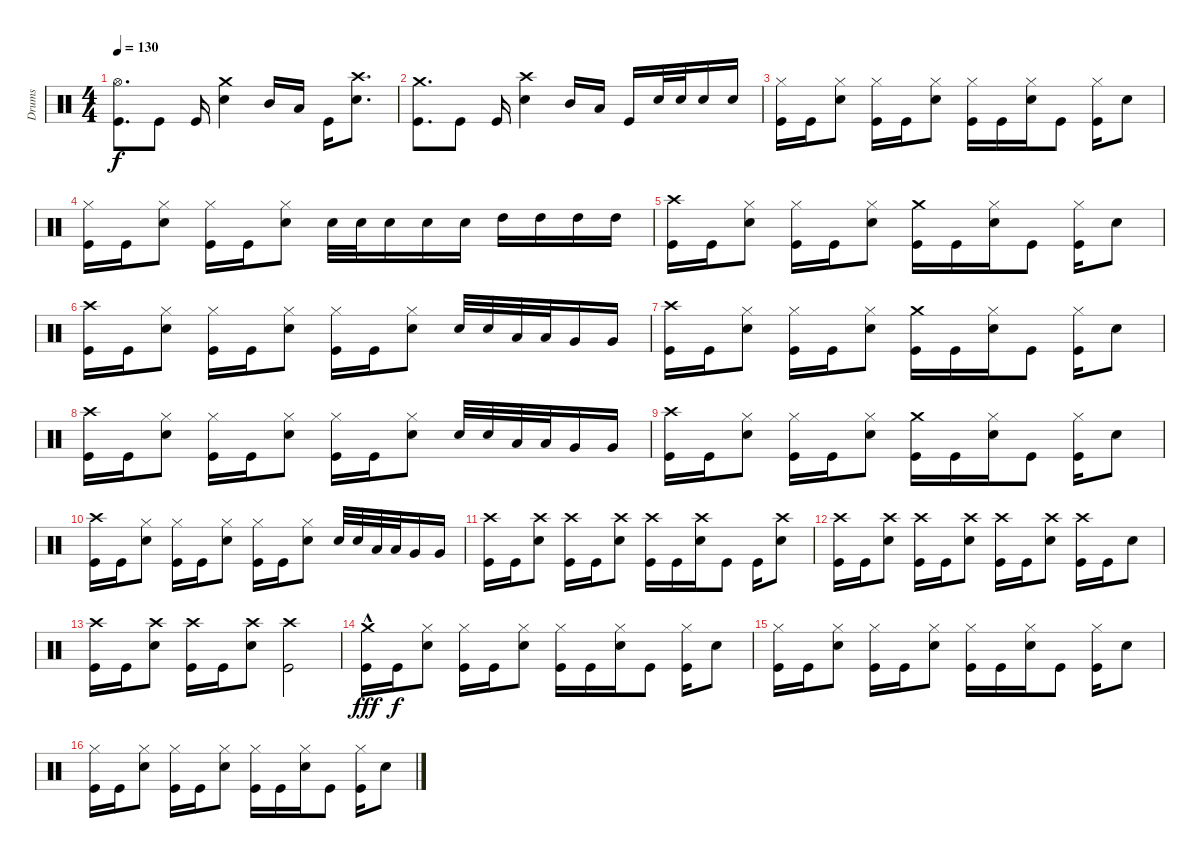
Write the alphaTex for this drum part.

\track ("Drums" "Drums") {instrument percussion}
\staff {score}
\articulation defaults
\ts (4 4)
\tempo 130
\clef neutral
\ks c
("Hi-Hat (open)" "Kick (hit)").8{d dy f} "Kick (hit)".8 "Kick (hit)".16 ("Crash medium (hit)" "Snare (hit) 2").4 "Mid Tom (hit)".16 "Low Tom (hit)".16 "Kick (hit)".16 ("Crash high (hit)" "Snare (hit) 2").8{d} |
("Crash medium (hit)" "Kick (hit)").8{d} "Kick (hit)".8 "Kick (hit)".16 ("Crash high (hit)" "Snare (hit) 2").4 "Mid Tom (hit)".16 "Low Tom (hit)".16 "Kick (hit)".16 "Snare (hit) 2".32 "Snare (hit) 2".32 "Snare (hit) 2".16 "Snare (hit) 2".16 |
("Hi-Hat (closed)" "Kick (hit)").16 "Kick (hit)".16 ("Hi-Hat (closed)" "Snare (hit) 2").8 ("Hi-Hat (closed)" "Kick (hit)").16 "Kick (hit)".16 ("Hi-Hat (closed)" "Snare (hit) 2").8 ("Hi-Hat (closed)" "Kick (hit)").16 "Kick (hit)".16 ("Hi-Hat (closed)" "Snare (hit) 2").16 "Kick (hit)".8 ("Hi-Hat (closed)" "Kick (hit)").16 "Snare (hit) 2".8 |
("Hi-Hat (closed)" "Kick (hit)").16 "Kick (hit)".16 ("Hi-Hat (closed)" "Snare (hit) 2").8 ("Hi-Hat (closed)" "Kick (hit)").16 "Kick (hit)".16 ("Hi-Hat (closed)" "Snare (hit) 2").8 "Snare (hit) 2".32 "Snare (hit) 2".32 "Snare (hit) 2".16 "Snare (hit) 2".16 "Snare (hit) 2".16 "High Tom (hit)".16 "High Tom (hit)".16 "High Tom (hit)".16 "High Tom (hit)".16 |
("Crash high (hit)" "Kick (hit)").16 "Kick (hit)".16 ("Hi-Hat (closed)" "Snare (hit) 2").8 ("Hi-Hat (closed)" "Kick (hit)").16 "Kick (hit)".16 ("Hi-Hat (closed)" "Snare (hit) 2").8 ("Crash medium (hit)" "Kick (hit)").16 "Kick (hit)".16 ("Hi-Hat (closed)" "Snare (hit) 2").16 "Kick (hit)".8 ("Hi-Hat (closed)" "Kick (hit)").16 "Snare (hit) 2".8 |
("Crash high (hit)" "Kick (hit)").16 "Kick (hit)".16 ("Hi-Hat (closed)" "Snare (hit) 2").8 ("Hi-Hat (closed)" "Kick (hit)").16 "Kick (hit)".16 ("Hi-Hat (closed)" "Snare (hit) 2").8 ("Hi-Hat (closed)" "Kick (hit)").16 "Kick (hit)".16 ("Hi-Hat (closed)" "Snare (hit) 2").8 "Snare (hit) 2".32 "Snare (hit) 2".32 "Low Tom (hit)".32 "Low Tom (hit)".32 "Very Low Tom (hit)".16 "Very Low Tom (hit)".16 |
("Crash high (hit)" "Kick (hit)").16 "Kick (hit)".16 ("Hi-Hat (closed)" "Snare (hit) 2").8 ("Hi-Hat (closed)" "Kick (hit)").16 "Kick (hit)".16 ("Hi-Hat (closed)" "Snare (hit) 2").8 ("Crash medium (hit)" "Kick (hit)").16 "Kick (hit)".16 ("Hi-Hat (closed)" "Snare (hit) 2").16 "Kick (hit)".8 ("Hi-Hat (closed)" "Kick (hit)").16 "Snare (hit) 2".8 |
("Crash high (hit)" "Kick (hit)").16 "Kick (hit)".16 ("Hi-Hat (closed)" "Snare (hit) 2").8 ("Hi-Hat (closed)" "Kick (hit)").16 "Kick (hit)".16 ("Hi-Hat (closed)" "Snare (hit) 2").8 ("Hi-Hat (closed)" "Kick (hit)").16 "Kick (hit)".16 ("Hi-Hat (closed)" "Snare (hit) 2").8 "Snare (hit) 2".32 "Snare (hit) 2".32 "Low Tom (hit)".32 "Low Tom (hit)".32 "Very Low Tom (hit)".16 "Very Low Tom (hit)".16 |
("Crash high (hit)" "Kick (hit)").16 "Kick (hit)".16 ("Hi-Hat (closed)" "Snare (hit) 2").8 ("Hi-Hat (closed)" "Kick (hit)").16 "Kick (hit)".16 ("Hi-Hat (closed)" "Snare (hit) 2").8 ("Crash medium (hit)" "Kick (hit)").16 "Kick (hit)".16 ("Hi-Hat (closed)" "Snare (hit) 2").16 "Kick (hit)".8 ("Hi-Hat (closed)" "Kick (hit)").16 "Snare (hit) 2".8 |
("Crash high (hit)" "Kick (hit)").16 "Kick (hit)".16 ("Hi-Hat (closed)" "Snare (hit) 2").8 ("Hi-Hat (closed)" "Kick (hit)").16 "Kick (hit)".16 ("Hi-Hat (closed)" "Snare (hit) 2").8 ("Hi-Hat (closed)" "Kick (hit)").16 "Kick (hit)".16 ("Hi-Hat (closed)" "Snare (hit) 2").8 "Snare (hit) 2".32 "Snare (hit) 2".32 "Low Tom (hit)".32 "Low Tom (hit)".32 "Very Low Tom (hit)".16 "Very Low Tom (hit)".16 |
("Crash high (hit)" "Kick (hit)").16 "Kick (hit)".16 ("Crash high (hit)" "Snare (hit) 2").8 ("Crash high (hit)" "Kick (hit)").16 "Kick (hit)".16 ("Crash high (hit)" "Snare (hit) 2").8 ("Crash high (hit)" "Kick (hit)").16 "Kick (hit)".16 ("Crash high (hit)" "Snare (hit) 2").16 "Kick (hit)".8 "Kick (hit)".16 ("Crash high (hit)" "Snare (hit) 2").8 |
("Crash high (hit)" "Kick (hit)").16 "Kick (hit)".16 ("Crash high (hit)" "Snare (hit) 2").8 ("Crash high (hit)" "Kick (hit)").16 "Kick (hit)".16 ("Crash high (hit)" "Snare (hit) 2").8 ("Crash high (hit)" "Kick (hit)").16 "Kick (hit)".16 ("Crash high (hit)" "Snare (hit) 2").8 ("Crash high (hit)" "Kick (hit)").16 "Kick (hit)".16 "Snare (hit) 2".8 |
("Crash high (hit)" "Kick (hit)").16 "Kick (hit)".16 ("Crash high (hit)" "Snare (hit) 2").8 ("Crash high (hit)" "Kick (hit)").16 "Kick (hit)".16 ("Crash high (hit)" "Snare (hit) 2").8 ("Crash high (hit)" "Kick (hit)").2 |
("Crash medium (hit)"{hac} "Kick (hit)").16{dy fff} "Kick (hit)".16{dy f} ("Hi-Hat (closed)" "Snare (hit) 2").8 ("Hi-Hat (closed)" "Kick (hit)").16 "Kick (hit)".16 ("Hi-Hat (closed)" "Snare (hit) 2").8 ("Hi-Hat (closed)" "Kick (hit)").16 "Kick (hit)".16 ("Hi-Hat (closed)" "Snare (hit) 2").16 "Kick (hit)".8 ("Hi-Hat (closed)" "Kick (hit)").16 "Snare (hit) 2".8 |
("Hi-Hat (closed)" "Kick (hit)").16 "Kick (hit)".16 ("Hi-Hat (closed)" "Snare (hit) 2").8 ("Hi-Hat (closed)" "Kick (hit)").16 "Kick (hit)".16 ("Hi-Hat (closed)" "Snare (hit) 2").8 ("Hi-Hat (closed)" "Kick (hit)").16 "Kick (hit)".16 ("Hi-Hat (closed)" "Snare (hit) 2").16 "Kick (hit)".8 ("Hi-Hat (closed)" "Kick (hit)").16 "Snare (hit) 2".8 |
("Hi-Hat (closed)" "Kick (hit)").16 "Kick (hit)".16 ("Hi-Hat (closed)" "Snare (hit) 2").8 ("Hi-Hat (closed)" "Kick (hit)").16 "Kick (hit)".16 ("Hi-Hat (closed)" "Snare (hit) 2").8 ("Hi-Hat (closed)" "Kick (hit)").16 "Kick (hit)".16 ("Hi-Hat (closed)" "Snare (hit) 2").16 "Kick (hit)".8 ("Hi-Hat (closed)" "Kick (hit)").16 "Snare (hit) 2".8
